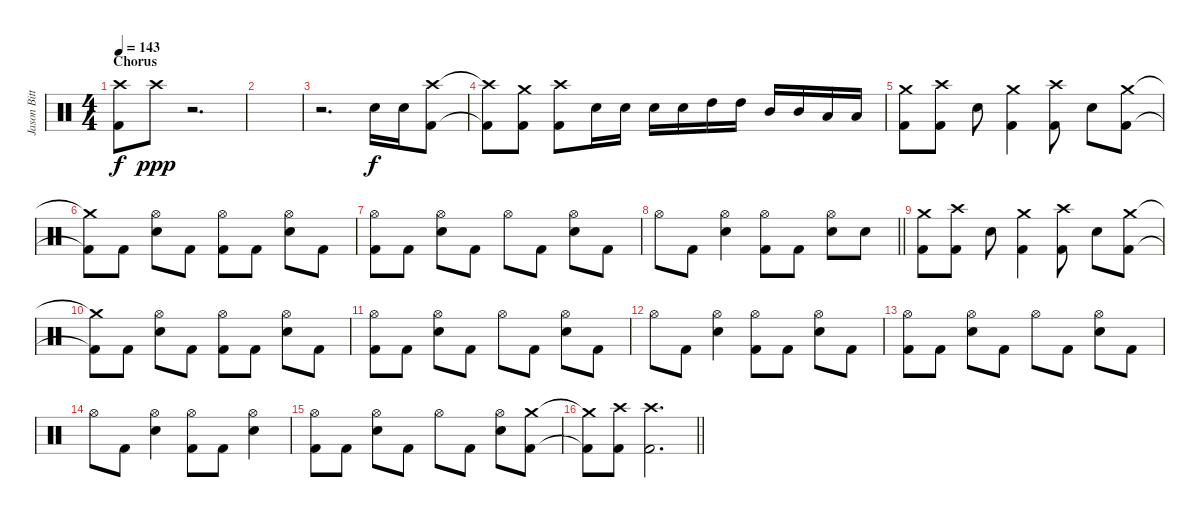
\track ("Jason Bittner" "Jason Bitt") {instrument percussion}
\staff {score}
\articulation defaults
\ts (4 4)
\section ("" "Chorus")
\tempo 143
\clef neutral
\ks c
("Crash high (hit)" "Kick (hit) 2").8{dy f} "Crash high (hit)".8{dy ppp} r.2{d} |
|
r.2{d} "Electric Snare (hit)".16{dy f} "Electric Snare (hit)".16 ("Crash high (hit)" "Kick (hit) 2").8 |
("Crash high (hit)"{t} "Kick (hit) 2"{t}).8 ("Crash medium (hit)" "Kick (hit) 2").8 ("Crash high (hit)" "Kick (hit) 2").8 "Electric Snare (hit)".16 "Electric Snare (hit)".16 "Electric Snare (hit)".16 "Electric Snare (hit)".16 "High Tom (hit)".16 "High Tom (hit)".16 "Mid Tom (hit)".16 "Mid Tom (hit)".16 "Low Tom (hit)".16 "Low Tom (hit)".16 |
("Crash medium (hit)" "Kick (hit) 2").8 ("Crash high (hit)" "Kick (hit) 2").8 "Electric Snare (hit)".8 ("Crash medium (hit)" "Kick (hit) 2").4 ("Crash high (hit)" "Kick (hit) 2").8 "Electric Snare (hit)".8 ("Crash medium (hit)" "Kick (hit) 2").8 |
("Crash medium (hit)"{t} "Kick (hit) 2"{t}).8 "Kick (hit) 2".8 ("Hi-Hat (open)" "Electric Snare (hit)").8 "Kick (hit) 2".8 ("Hi-Hat (open)" "Kick (hit) 2").8 "Kick (hit) 2".8 ("Hi-Hat (open)" "Electric Snare (hit)").8 "Kick (hit) 2".8 |
("Hi-Hat (open)" "Kick (hit) 2").8 "Kick (hit) 2".8 ("Hi-Hat (open)" "Electric Snare (hit)").8 "Kick (hit) 2".8 "Hi-Hat (open)".8 "Kick (hit) 2".8 ("Hi-Hat (open)" "Electric Snare (hit)").8 "Kick (hit) 2".8 |
\barLineRight lightlight "Hi-Hat (open)".8 "Kick (hit) 2".8
("Hi-Hat (open)" "Electric Snare (hit)").4 ("Hi-Hat (open)" "Kick (hit) 2").8 "Kick (hit) 2".8 ("Hi-Hat (open)" "Electric Snare (hit)").8 "Electric Snare (hit)".8 |
("Crash medium (hit)" "Kick (hit) 2").8 ("Crash high (hit)" "Kick (hit) 2").8 "Electric Snare (hit)".8 ("Crash medium (hit)" "Kick (hit) 2").4 ("Crash high (hit)" "Kick (hit) 2").8 "Electric Snare (hit)".8 ("Crash medium (hit)" "Kick (hit) 2").8 |
("Crash medium (hit)"{t} "Kick (hit) 2"{t}).8 "Kick (hit) 2".8 ("Hi-Hat (open)" "Electric Snare (hit)").8 "Kick (hit) 2".8 ("Hi-Hat (open)" "Kick (hit) 2").8 "Kick (hit) 2".8 ("Hi-Hat (open)" "Electric Snare (hit)").8 "Kick (hit) 2".8 |
("Hi-Hat (open)" "Kick (hit) 2").8 "Kick (hit) 2".8 ("Hi-Hat (open)" "Electric Snare (hit)").8 "Kick (hit) 2".8 "Hi-Hat (open)".8 "Kick (hit) 2".8 ("Hi-Hat (open)" "Electric Snare (hit)").8 "Kick (hit) 2".8 |
"Hi-Hat (open)".8 "Kick (hit) 2".8 ("Hi-Hat (open)" "Electric Snare (hit)").4 ("Hi-Hat (open)" "Kick (hit) 2").8 "Kick (hit) 2".8 ("Hi-Hat (open)" "Electric Snare (hit)").8 "Kick (hit) 2".8 |
("Hi-Hat (open)" "Kick (hit) 2").8 "Kick (hit) 2".8 ("Hi-Hat (open)" "Electric Snare (hit)").8 "Kick (hit) 2".8 "Hi-Hat (open)".8 "Kick (hit) 2".8 ("Hi-Hat (open)" "Electric Snare (hit)").8 "Kick (hit) 2".8 |
"Hi-Hat (open)".8 "Kick (hit) 2".8 ("Hi-Hat (open)" "Electric Snare (hit)").4 ("Hi-Hat (open)" "Kick (hit) 2").8 "Kick (hit) 2".8 ("Hi-Hat (open)" "Electric Snare (hit)").4 |
("Hi-Hat (open)" "Kick (hit) 2").8 "Kick (hit) 2".8 ("Hi-Hat (open)" "Electric Snare (hit)").8 "Kick (hit) 2".8 "Hi-Hat (open)".8 "Kick (hit) 2".8 ("Hi-Hat (open)" "Electric Snare (hit)").8 ("Crash medium (hit)" "Kick (hit) 2").8 |
\barLineRight lightlight
("Crash medium (hit)"{t} "Kick (hit) 2"{t}).8 ("Crash high (hit)" "Kick (hit) 2").8 ("Crash high (hit)" "Kick (hit) 2").2{d}
